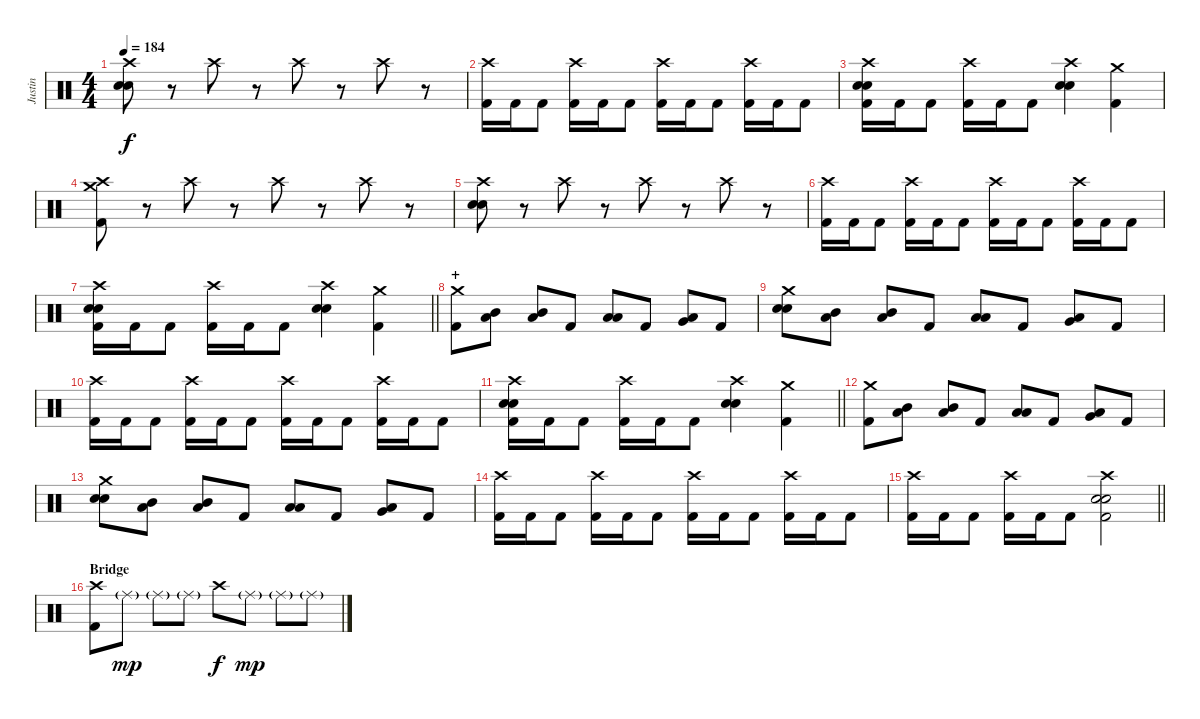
\track ("Justin" "Justin") {instrument percussion}
\staff {score}
\articulation defaults
\ts (4 4)
\tempo 184
\clef neutral
\ks c
("Crash high (hit)" "Electric Snare (hit)" "Snare (hit) 2").8{dy f} r.8 "Crash high (hit)".8 r.8 "Crash high (hit)".8 r.8 "Crash high (hit)".8 r.8 |
("Crash high (hit)" "Kick (hit) 2").16 "Kick (hit) 2".16 "Kick (hit) 2".8 ("Crash high (hit)" "Kick (hit) 2").16 "Kick (hit) 2".16 "Kick (hit) 2".8 ("Crash high (hit)" "Kick (hit) 2").16 "Kick (hit) 2".16 "Kick (hit) 2".8 ("Crash high (hit)" "Kick (hit) 2").16 "Kick (hit) 2".16 "Kick (hit) 2".8 |
("Crash high (hit)" "Electric Snare (hit)" "Snare (hit) 2" "Kick (hit) 2").16 "Kick (hit) 2".16 "Kick (hit) 2".8 ("Crash high (hit)" "Kick (hit) 2").16 "Kick (hit) 2".16 "Kick (hit) 2".8 ("Crash high (hit)" "Electric Snare (hit)" "Snare (hit) 2").4 ("Crash medium (hit)" "Kick (hit) 2").4 |
("Crash medium (hit)" "Crash high (hit)" "Kick (hit) 2").8 r.8 "Crash high (hit)".8 r.8 "Crash high (hit)".8 r.8 "Crash high (hit)".8 r.8 |
("Crash high (hit)" "Electric Snare (hit)" "Snare (hit) 2").8 r.8 "Crash high (hit)".8 r.8 "Crash high (hit)".8 r.8 "Crash high (hit)".8 r.8 |
("Crash high (hit)" "Kick (hit) 2").16 "Kick (hit) 2".16 "Kick (hit) 2".8 ("Crash high (hit)" "Kick (hit) 2").16 "Kick (hit) 2".16 "Kick (hit) 2".8 ("Crash high (hit)" "Kick (hit) 2").16 "Kick (hit) 2".16 "Kick (hit) 2".8 ("Crash high (hit)" "Kick (hit) 2").16 "Kick (hit) 2".16 "Kick (hit) 2".8 |
\barLineRight lightlight
("Crash high (hit)" "Electric Snare (hit)" "Snare (hit) 2" "Kick (hit) 2").16 "Kick (hit) 2".16 "Kick (hit) 2".8 ("Crash high (hit)" "Kick (hit) 2").16 "Kick (hit) 2".16 "Kick (hit) 2".8 ("Crash high (hit)" "Electric Snare (hit)" "Snare (hit) 2").4 ("Crash medium (hit)" "Kick (hit) 2").4 |
\section ("" "+")
("Crash medium (hit)" "Kick (hit) 2").8 ("Mid Tom (hit)" "Low Floor Tom (hit)").8 ("Mid Tom (hit)" "Low Floor Tom (hit)").8 "Kick (hit) 2".8 ("Low Tom (hit)" "Low Floor Tom (hit)").8 "Kick (hit) 2".8 ("Very Low Tom (hit)" "Low Floor Tom (hit)").8 "Kick (hit) 2".8 |
("Crash medium (hit)" "Electric Snare (hit)" "Snare (hit) 2").8 ("Mid Tom (hit)" "Low Floor Tom (hit)").8 ("Mid Tom (hit)" "Low Floor Tom (hit)").8 "Kick (hit) 2".8 ("Low Tom (hit)" "Low Floor Tom (hit)").8 "Kick (hit) 2".8 ("Very Low Tom (hit)" "Low Floor Tom (hit)").8 "Kick (hit) 2".8 |
("Crash high (hit)" "Kick (hit) 2").16 "Kick (hit) 2".16 "Kick (hit) 2".8 ("Crash high (hit)" "Kick (hit) 2").16 "Kick (hit) 2".16 "Kick (hit) 2".8 ("Crash high (hit)" "Kick (hit) 2").16 "Kick (hit) 2".16 "Kick (hit) 2".8 ("Crash high (hit)" "Kick (hit) 2").16 "Kick (hit) 2".16 "Kick (hit) 2".8 |
\barLineRight lightlight
("Crash high (hit)" "Electric Snare (hit)" "Snare (hit) 2" "Kick (hit) 2").16 "Kick (hit) 2".16 "Kick (hit) 2".8 ("Crash high (hit)" "Kick (hit) 2").16 "Kick (hit) 2".16 "Kick (hit) 2".8 ("Crash high (hit)" "Electric Snare (hit)" "Snare (hit) 2").4 ("Crash medium (hit)" "Kick (hit) 2").4 |
("Crash medium (hit)" "Kick (hit) 2").8 ("Mid Tom (hit)" "Low Floor Tom (hit)").8 ("Mid Tom (hit)" "Low Floor Tom (hit)").8 "Kick (hit) 2".8 ("Low Tom (hit)" "Low Floor Tom (hit)").8 "Kick (hit) 2".8 ("Very Low Tom (hit)" "Low Floor Tom (hit)").8 "Kick (hit) 2".8 |
("Crash medium (hit)" "Electric Snare (hit)" "Snare (hit) 2").8 ("Mid Tom (hit)" "Low Floor Tom (hit)").8 ("Mid Tom (hit)" "Low Floor Tom (hit)").8 "Kick (hit) 2".8 ("Low Tom (hit)" "Low Floor Tom (hit)").8 "Kick (hit) 2".8 ("Very Low Tom (hit)" "Low Floor Tom (hit)").8 "Kick (hit) 2".8 |
("Crash high (hit)" "Kick (hit) 2").16 "Kick (hit) 2".16 "Kick (hit) 2".8 ("Crash high (hit)" "Kick (hit) 2").16 "Kick (hit) 2".16 "Kick (hit) 2".8 ("Crash high (hit)" "Kick (hit) 2").16 "Kick (hit) 2".16 "Kick (hit) 2".8 ("Crash high (hit)" "Kick (hit) 2").16 "Kick (hit) 2".16 "Kick (hit) 2".8 |
\barLineRight lightlight
("Crash high (hit)" "Kick (hit) 2").16 "Kick (hit) 2".16 "Kick (hit) 2".8 ("Crash high (hit)" "Kick (hit) 2").16 "Kick (hit) 2".16 "Kick (hit) 2".8 ("Crash high (hit)" "Electric Snare (hit)" "Snare (hit) 2" "Kick (hit) 2").2 |
\section ("" "Bridge")
("Crash high (hit)" "Kick (hit) 2").8 "Ride (middle)"{g}.8{dy mp} "Ride (middle)"{g}.8 "Ride (middle)"{g}.8 "Crash high (hit)".8{dy f} "Ride (middle)"{g}.8{dy mp} "Ride (middle)"{g}.8 "Ride (middle)"{g}.8
